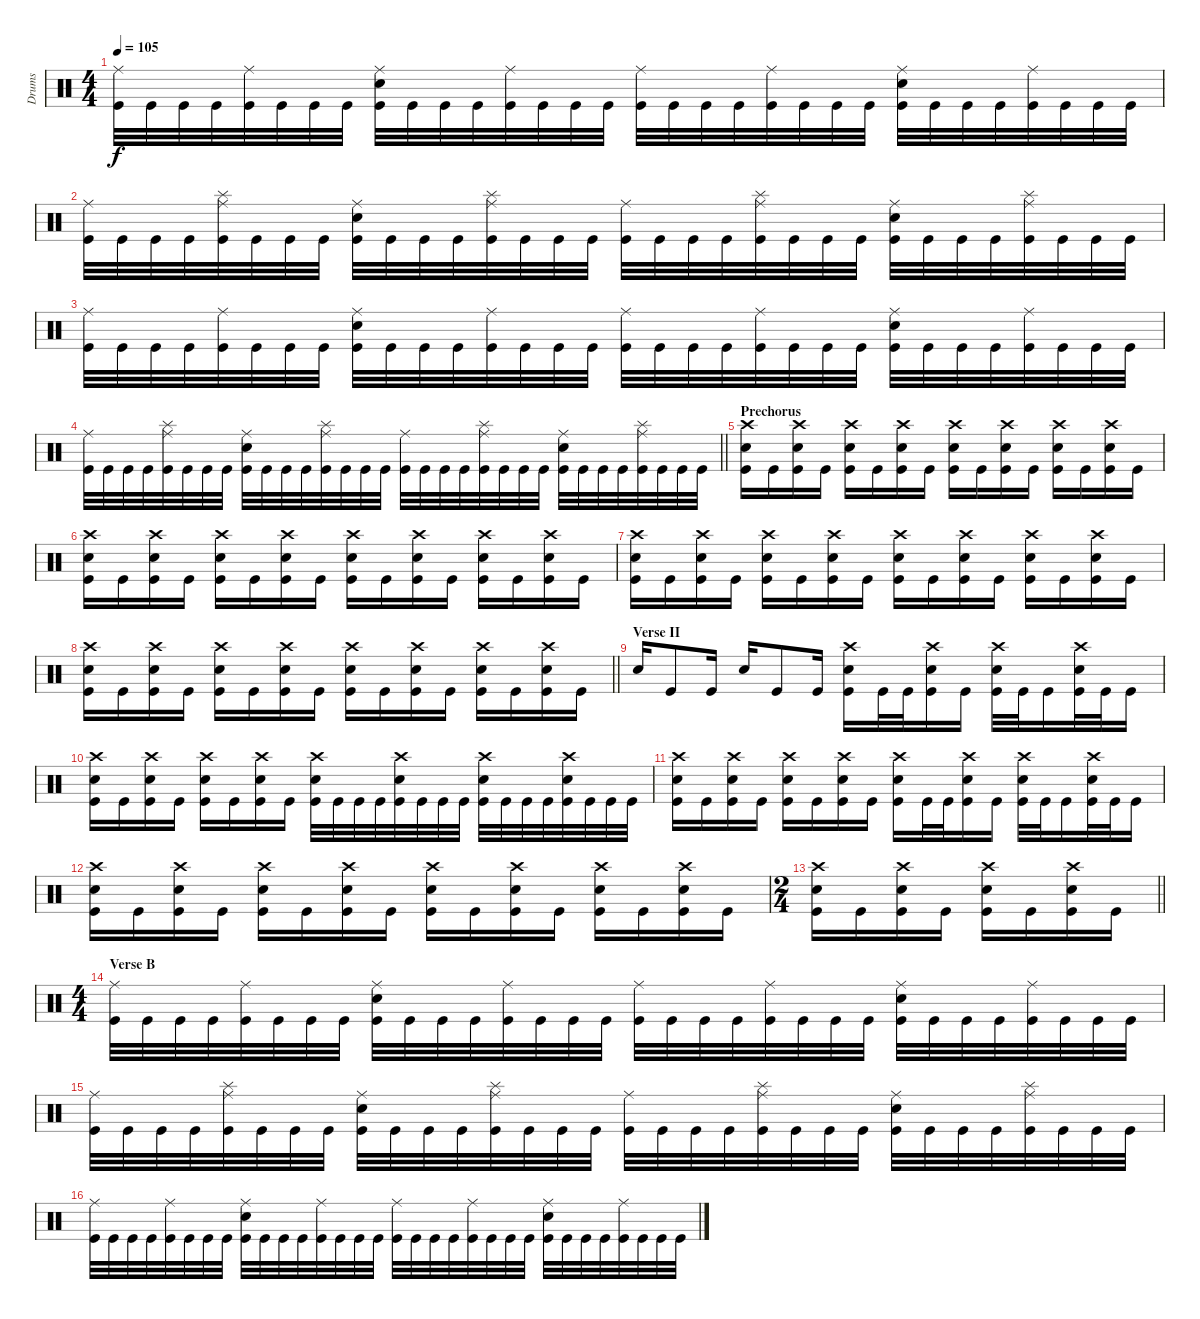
\track ("Drums" "Drums") {instrument percussion}
\staff {score}
\articulation defaults
\ts (4 4)
\tempo 105
\clef neutral
\ks c
("Ride (middle)" "Kick (hit)").32{dy f} "Kick (hit)".32 "Kick (hit)".32 "Kick (hit)".32 ("Ride (middle)" "Kick (hit)").32 "Kick (hit)".32 "Kick (hit)".32 "Kick (hit)".32 ("Ride (middle)" "Snare (hit) 2" "Kick (hit)").32 "Kick (hit)".32 "Kick (hit)".32 "Kick (hit)".32 ("Ride (middle)" "Kick (hit)").32 "Kick (hit)".32 "Kick (hit)".32 "Kick (hit)".32 ("Ride (middle)" "Kick (hit)").32 "Kick (hit)".32 "Kick (hit)".32 "Kick (hit)".32 ("Ride (middle)" "Kick (hit)").32 "Kick (hit)".32 "Kick (hit)".32 "Kick (hit)".32 ("Ride (middle)" "Snare (hit) 2" "Kick (hit)").32 "Kick (hit)".32 "Kick (hit)".32 "Kick (hit)".32 ("Ride (middle)" "Kick (hit)").32 "Kick (hit)".32 "Kick (hit)".32 "Kick (hit)".32 |
("Ride (middle)" "Kick (hit)").32 "Kick (hit)".32 "Kick (hit)".32 "Kick (hit)".32 ("Ride (middle)" "Splash (hit)" "Kick (hit)").32 "Kick (hit)".32 "Kick (hit)".32 "Kick (hit)".32 ("Ride (middle)" "Snare (hit) 2" "Kick (hit)").32 "Kick (hit)".32 "Kick (hit)".32 "Kick (hit)".32 ("Ride (middle)" "Splash (hit)" "Kick (hit)").32 "Kick (hit)".32 "Kick (hit)".32 "Kick (hit)".32 ("Ride (middle)" "Kick (hit)").32 "Kick (hit)".32 "Kick (hit)".32 "Kick (hit)".32 ("Ride (middle)" "Splash (hit)" "Kick (hit)").32 "Kick (hit)".32 "Kick (hit)".32 "Kick (hit)".32 ("Ride (middle)" "Snare (hit) 2" "Kick (hit)").32 "Kick (hit)".32 "Kick (hit)".32 "Kick (hit)".32 ("Ride (middle)" "Splash (hit)" "Kick (hit)").32 "Kick (hit)".32 "Kick (hit)".32 "Kick (hit)".32 |
("Ride (middle)" "Kick (hit)").32 "Kick (hit)".32 "Kick (hit)".32 "Kick (hit)".32 ("Ride (middle)" "Kick (hit)").32 "Kick (hit)".32 "Kick (hit)".32 "Kick (hit)".32 ("Ride (middle)" "Snare (hit) 2" "Kick (hit)").32 "Kick (hit)".32 "Kick (hit)".32 "Kick (hit)".32 ("Ride (middle)" "Kick (hit)").32 "Kick (hit)".32 "Kick (hit)".32 "Kick (hit)".32 ("Ride (middle)" "Kick (hit)").32 "Kick (hit)".32 "Kick (hit)".32 "Kick (hit)".32 ("Ride (middle)" "Kick (hit)").32 "Kick (hit)".32 "Kick (hit)".32 "Kick (hit)".32 ("Ride (middle)" "Snare (hit) 2" "Kick (hit)").32 "Kick (hit)".32 "Kick (hit)".32 "Kick (hit)".32 ("Ride (middle)" "Kick (hit)").32 "Kick (hit)".32 "Kick (hit)".32 "Kick (hit)".32 |
\barLineRight lightlight
("Ride (middle)" "Kick (hit)").32 "Kick (hit)".32 "Kick (hit)".32 "Kick (hit)".32 ("Ride (middle)" "Splash (hit)" "Kick (hit)").32 "Kick (hit)".32 "Kick (hit)".32 "Kick (hit)".32 ("Ride (middle)" "Snare (hit) 2" "Kick (hit)").32 "Kick (hit)".32 "Kick (hit)".32 "Kick (hit)".32 ("Ride (middle)" "Splash (hit)" "Kick (hit)").32 "Kick (hit)".32 "Kick (hit)".32 "Kick (hit)".32 ("Ride (middle)" "Kick (hit)").32 "Kick (hit)".32 "Kick (hit)".32 "Kick (hit)".32 ("Ride (middle)" "Splash (hit)" "Kick (hit)").32 "Kick (hit)".32 "Kick (hit)".32 "Kick (hit)".32 ("Ride (middle)" "Snare (hit) 2" "Kick (hit)").32 "Kick (hit)".32 "Kick (hit)".32 "Kick (hit)".32 ("Ride (middle)" "Splash (hit)" "Kick (hit)").32 "Kick (hit)".32 "Kick (hit)".32 "Kick (hit)".32 |
\section ("" "Prechorus")
("Crash high (hit)" "Snare (hit) 2" "Kick (hit)").16 "Kick (hit)".16 ("Crash high (hit)" "Snare (hit) 2" "Kick (hit)").16 "Kick (hit)".16 ("Crash high (hit)" "Snare (hit) 2" "Kick (hit)").16 "Kick (hit)".16 ("Crash high (hit)" "Snare (hit) 2" "Kick (hit)").16 "Kick (hit)".16 ("Crash high (hit)" "Snare (hit) 2" "Kick (hit)").16 "Kick (hit)".16 ("Crash high (hit)" "Snare (hit) 2" "Kick (hit)").16 "Kick (hit)".16 ("Crash high (hit)" "Snare (hit) 2" "Kick (hit)").16 "Kick (hit)".16 ("Crash high (hit)" "Snare (hit) 2" "Kick (hit)").16 "Kick (hit)".16 |
("Crash high (hit)" "Snare (hit) 2" "Kick (hit)").16 "Kick (hit)".16 ("Crash high (hit)" "Snare (hit) 2" "Kick (hit)").16 "Kick (hit)".16 ("Crash high (hit)" "Snare (hit) 2" "Kick (hit)").16 "Kick (hit)".16 ("Crash high (hit)" "Snare (hit) 2" "Kick (hit)").16 "Kick (hit)".16 ("Crash high (hit)" "Snare (hit) 2" "Kick (hit)").16 "Kick (hit)".16 ("Crash high (hit)" "Snare (hit) 2" "Kick (hit)").16 "Kick (hit)".16 ("Crash high (hit)" "Snare (hit) 2" "Kick (hit)").16 "Kick (hit)".16 ("Crash high (hit)" "Snare (hit) 2" "Kick (hit)").16 "Kick (hit)".16 |
("Crash high (hit)" "Snare (hit) 2" "Kick (hit)").16 "Kick (hit)".16 ("Crash high (hit)" "Snare (hit) 2" "Kick (hit)").16 "Kick (hit)".16 ("Crash high (hit)" "Snare (hit) 2" "Kick (hit)").16 "Kick (hit)".16 ("Crash high (hit)" "Snare (hit) 2" "Kick (hit)").16 "Kick (hit)".16 ("Crash high (hit)" "Snare (hit) 2" "Kick (hit)").16 "Kick (hit)".16 ("Crash high (hit)" "Snare (hit) 2" "Kick (hit)").16 "Kick (hit)".16 ("Crash high (hit)" "Snare (hit) 2" "Kick (hit)").16 "Kick (hit)".16 ("Crash high (hit)" "Snare (hit) 2" "Kick (hit)").16 "Kick (hit)".16 |
\barLineRight lightlight
("Crash high (hit)" "Snare (hit) 2" "Kick (hit)").16 "Kick (hit)".16 ("Crash high (hit)" "Snare (hit) 2" "Kick (hit)").16 "Kick (hit)".16 ("Crash high (hit)" "Snare (hit) 2" "Kick (hit)").16 "Kick (hit)".16 ("Crash high (hit)" "Snare (hit) 2" "Kick (hit)").16 "Kick (hit)".16 ("Crash high (hit)" "Snare (hit) 2" "Kick (hit)").16 "Kick (hit)".16 ("Crash high (hit)" "Snare (hit) 2" "Kick (hit)").16 "Kick (hit)".16 ("Crash high (hit)" "Snare (hit) 2" "Kick (hit)").16 "Kick (hit)".16 ("Crash high (hit)" "Snare (hit) 2" "Kick (hit)").16 "Kick (hit)".16 |
\section ("" "Verse II")
"Snare (hit) 2".16 "Kick (hit)".8 "Kick (hit)".16 "Snare (hit) 2".16 "Kick (hit)".8 "Kick (hit)".16 ("Crash high (hit)" "Snare (hit) 2" "Kick (hit)").16 "Kick (hit)".32 "Kick (hit)".32 ("Crash high (hit)" "Snare (hit) 2" "Kick (hit)").16 "Kick (hit)".16 ("Crash high (hit)" "Snare (hit) 2" "Kick (hit)").32 "Kick (hit)".32 "Kick (hit)".16 ("Crash high (hit)" "Snare (hit) 2" "Kick (hit)").32 "Kick (hit)".32 "Kick (hit)".16 |
("Crash high (hit)" "Snare (hit) 2" "Kick (hit)").16 "Kick (hit)".16 ("Crash high (hit)" "Snare (hit) 2" "Kick (hit)").16 "Kick (hit)".16 ("Crash high (hit)" "Snare (hit) 2" "Kick (hit)").16 "Kick (hit)".16 ("Crash high (hit)" "Snare (hit) 2" "Kick (hit)").16 "Kick (hit)".16 ("Crash high (hit)" "Snare (hit) 2" "Kick (hit)").32 "Kick (hit)".32 "Kick (hit)".32 "Kick (hit)".32 ("Crash high (hit)" "Snare (hit) 2" "Kick (hit)").32 "Kick (hit)".32 "Kick (hit)".32 "Kick (hit)".32 ("Crash high (hit)" "Snare (hit) 2" "Kick (hit)").32 "Kick (hit)".32 "Kick (hit)".32 "Kick (hit)".32 ("Crash high (hit)" "Snare (hit) 2" "Kick (hit)").32 "Kick (hit)".32 "Kick (hit)".32 "Kick (hit)".32 |
("Crash high (hit)" "Snare (hit) 2" "Kick (hit)").16 "Kick (hit)".16 ("Crash high (hit)" "Snare (hit) 2" "Kick (hit)").16 "Kick (hit)".16 ("Crash high (hit)" "Snare (hit) 2" "Kick (hit)").16 "Kick (hit)".16 ("Crash high (hit)" "Snare (hit) 2" "Kick (hit)").16 "Kick (hit)".16 ("Crash high (hit)" "Snare (hit) 2" "Kick (hit)").16 "Kick (hit)".32 "Kick (hit)".32 ("Crash high (hit)" "Snare (hit) 2" "Kick (hit)").16 "Kick (hit)".16 ("Crash high (hit)" "Snare (hit) 2" "Kick (hit)").32 "Kick (hit)".32 "Kick (hit)".16 ("Crash high (hit)" "Snare (hit) 2" "Kick (hit)").32 "Kick (hit)".32 "Kick (hit)".16 |
("Crash high (hit)" "Snare (hit) 2" "Kick (hit)").16 "Kick (hit)".16 ("Crash high (hit)" "Snare (hit) 2" "Kick (hit)").16 "Kick (hit)".16 ("Crash high (hit)" "Snare (hit) 2" "Kick (hit)").16 "Kick (hit)".16 ("Crash high (hit)" "Snare (hit) 2" "Kick (hit)").16 "Kick (hit)".16 ("Crash high (hit)" "Snare (hit) 2" "Kick (hit)").16 "Kick (hit)".16 ("Crash high (hit)" "Snare (hit) 2" "Kick (hit)").16 "Kick (hit)".16 ("Crash high (hit)" "Snare (hit) 2" "Kick (hit)").16 "Kick (hit)".16 ("Crash high (hit)" "Snare (hit) 2" "Kick (hit)").16 "Kick (hit)".16 |
\ts (2 4)
\barLineRight lightlight
("Crash high (hit)" "Snare (hit) 2" "Kick (hit)").16 "Kick (hit)".16 ("Crash high (hit)" "Snare (hit) 2" "Kick (hit)").16 "Kick (hit)".16 ("Crash high (hit)" "Snare (hit) 2" "Kick (hit)").16 "Kick (hit)".16 ("Crash high (hit)" "Snare (hit) 2" "Kick (hit)").16 "Kick (hit)".16 |
\ts (4 4)
\section ("" "Verse B")
("Ride (middle)" "Kick (hit)").32 "Kick (hit)".32 "Kick (hit)".32 "Kick (hit)".32 ("Ride (middle)" "Kick (hit)").32 "Kick (hit)".32 "Kick (hit)".32 "Kick (hit)".32 ("Ride (middle)" "Snare (hit) 2" "Kick (hit)").32 "Kick (hit)".32 "Kick (hit)".32 "Kick (hit)".32 ("Ride (middle)" "Kick (hit)").32 "Kick (hit)".32 "Kick (hit)".32 "Kick (hit)".32 ("Ride (middle)" "Kick (hit)").32 "Kick (hit)".32 "Kick (hit)".32 "Kick (hit)".32 ("Ride (middle)" "Kick (hit)").32 "Kick (hit)".32 "Kick (hit)".32 "Kick (hit)".32 ("Ride (middle)" "Snare (hit) 2" "Kick (hit)").32 "Kick (hit)".32 "Kick (hit)".32 "Kick (hit)".32 ("Ride (middle)" "Kick (hit)").32 "Kick (hit)".32 "Kick (hit)".32 "Kick (hit)".32 |
("Ride (middle)" "Kick (hit)").32 "Kick (hit)".32 "Kick (hit)".32 "Kick (hit)".32 ("Ride (middle)" "Splash (hit)" "Kick (hit)").32 "Kick (hit)".32 "Kick (hit)".32 "Kick (hit)".32 ("Ride (middle)" "Snare (hit) 2" "Kick (hit)").32 "Kick (hit)".32 "Kick (hit)".32 "Kick (hit)".32 ("Ride (middle)" "Splash (hit)" "Kick (hit)").32 "Kick (hit)".32 "Kick (hit)".32 "Kick (hit)".32 ("Ride (middle)" "Kick (hit)").32 "Kick (hit)".32 "Kick (hit)".32 "Kick (hit)".32 ("Ride (middle)" "Splash (hit)" "Kick (hit)").32 "Kick (hit)".32 "Kick (hit)".32 "Kick (hit)".32 ("Ride (middle)" "Snare (hit) 2" "Kick (hit)").32 "Kick (hit)".32 "Kick (hit)".32 "Kick (hit)".32 ("Ride (middle)" "Splash (hit)" "Kick (hit)").32 "Kick (hit)".32 "Kick (hit)".32 "Kick (hit)".32 |
("Ride (middle)" "Kick (hit)").32 "Kick (hit)".32 "Kick (hit)".32 "Kick (hit)".32 ("Ride (middle)" "Kick (hit)").32 "Kick (hit)".32 "Kick (hit)".32 "Kick (hit)".32 ("Ride (middle)" "Snare (hit) 2" "Kick (hit)").32 "Kick (hit)".32 "Kick (hit)".32 "Kick (hit)".32 ("Ride (middle)" "Kick (hit)").32 "Kick (hit)".32 "Kick (hit)".32 "Kick (hit)".32 ("Ride (middle)" "Kick (hit)").32 "Kick (hit)".32 "Kick (hit)".32 "Kick (hit)".32 ("Ride (middle)" "Kick (hit)").32 "Kick (hit)".32 "Kick (hit)".32 "Kick (hit)".32 ("Ride (middle)" "Snare (hit) 2" "Kick (hit)").32 "Kick (hit)".32 "Kick (hit)".32 "Kick (hit)".32 ("Ride (middle)" "Kick (hit)").32 "Kick (hit)".32 "Kick (hit)".32 "Kick (hit)".32
